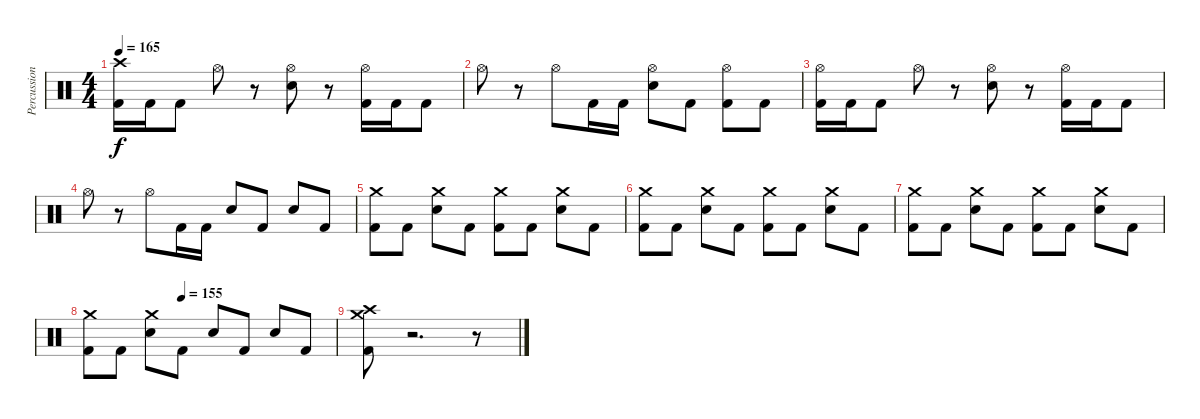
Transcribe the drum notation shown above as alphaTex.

\track ("Percussion" "Percussion") {instrument percussion}
\staff {score}
\articulation defaults
\ts (4 4)
\tempo 165
\clef neutral
\ks c
("Crash high (hit)" "Kick (hit) 2").16{dy f} "Kick (hit) 2".16 "Kick (hit) 2".8 "Hi-Hat (open)".8 r.8 ("Hi-Hat (open)" "Snare (hit) 2").8 r.8 ("Hi-Hat (open)" "Kick (hit) 2").16 "Kick (hit) 2".16 "Kick (hit) 2".8 |
"Hi-Hat (open)".8 r.8 "Hi-Hat (open)".8 "Kick (hit) 2".16 "Kick (hit) 2".16 ("Hi-Hat (open)" "Snare (hit) 2").8 "Kick (hit) 2".8 ("Hi-Hat (open)" "Kick (hit) 2").8 "Kick (hit) 2".8 |
("Hi-Hat (open)" "Kick (hit) 2").16 "Kick (hit) 2".16 "Kick (hit) 2".8 "Hi-Hat (open)".8 r.8 ("Hi-Hat (open)" "Snare (hit) 2").8 r.8 ("Hi-Hat (open)" "Kick (hit) 2").16 "Kick (hit) 2".16 "Kick (hit) 2".8 |
"Hi-Hat (open)".8 r.8 "Hi-Hat (open)".8 "Kick (hit) 2".16 "Kick (hit) 2".16 "Snare (hit) 2".8 "Kick (hit) 2".8 "Snare (hit) 2".8 "Kick (hit) 2".8 |
("Crash medium (hit)" "Kick (hit) 2").8 "Kick (hit) 2".8 ("Crash medium (hit)" "Snare (hit) 2").8 "Kick (hit) 2".8 ("Crash medium (hit)" "Kick (hit) 2").8 "Kick (hit) 2".8 ("Crash medium (hit)" "Snare (hit) 2").8 "Kick (hit) 2".8 |
("Crash medium (hit)" "Kick (hit) 2").8 "Kick (hit) 2".8 ("Crash medium (hit)" "Snare (hit) 2").8 "Kick (hit) 2".8 ("Crash medium (hit)" "Kick (hit) 2").8 "Kick (hit) 2".8 ("Crash medium (hit)" "Snare (hit) 2").8 "Kick (hit) 2".8 |
("Crash medium (hit)" "Kick (hit) 2").8 "Kick (hit) 2".8 ("Crash medium (hit)" "Snare (hit) 2").8 "Kick (hit) 2".8 ("Crash medium (hit)" "Kick (hit) 2").8 "Kick (hit) 2".8 ("Crash medium (hit)" "Snare (hit) 2").8 "Kick (hit) 2".8 |
\tempo (155 0.375)
("Crash medium (hit)" "Kick (hit) 2").8 "Kick (hit) 2".8 ("Crash medium (hit)" "Snare (hit) 2").8 "Kick (hit) 2".8 "Snare (hit) 2".8 "Kick (hit) 2".8 "Snare (hit) 2".8 "Kick (hit) 2".8 |
("Crash high (hit)" "Crash medium (hit)" "Kick (hit) 2").8 r.2{d} r.8
